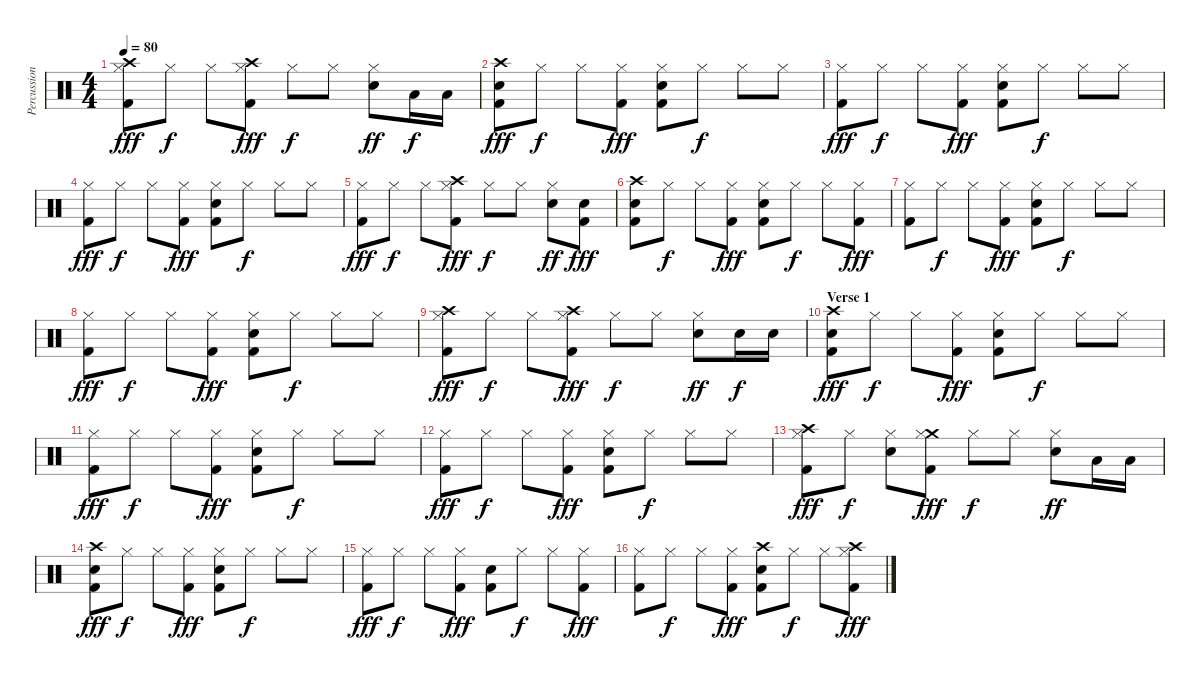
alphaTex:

\track ("Percussion" "Percussion") {instrument percussion}
\staff {score}
\articulation defaults
\ts (4 4)
\tempo 80
\clef neutral
\ks c
("Crash high (hit)" "Kick (hit) 2" "Hi-Hat (closed)").8{dy fff} "Hi-Hat (closed)".8{dy f} "Hi-Hat (closed)".8 ("Crash high (hit)" "Kick (hit) 2" "Hi-Hat (closed)").8{dy fff} "Hi-Hat (closed)".8{dy f} "Hi-Hat (closed)".8 ("Snare (hit) 2" "Hi-Hat (closed)").8{dy ff} "Low Tom (hit)".16{dy f} "Low Floor Tom (hit)".16 |
("Crash high (hit)" "Snare (hit) 2" "Kick (hit) 2").8{dy fff} "Hi-Hat (closed)".8{dy f} "Hi-Hat (closed)".8 ("Kick (hit) 2" "Hi-Hat (closed)").8{dy fff} ("Snare (hit) 2" "Kick (hit) 2" "Hi-Hat (closed)").8 "Hi-Hat (closed)".8{dy f} "Hi-Hat (closed)".8 "Hi-Hat (closed)".8 |
("Kick (hit) 2" "Hi-Hat (closed)").8{dy fff} "Hi-Hat (closed)".8{dy f} "Hi-Hat (closed)".8 ("Kick (hit) 2" "Hi-Hat (closed)").8{dy fff} ("Snare (hit) 2" "Kick (hit) 2" "Hi-Hat (closed)").8 "Hi-Hat (closed)".8{dy f} "Hi-Hat (closed)".8 "Hi-Hat (closed)".8 |
("Kick (hit) 2" "Hi-Hat (closed)").8{dy fff} "Hi-Hat (closed)".8{dy f} "Hi-Hat (closed)".8 ("Kick (hit) 2" "Hi-Hat (closed)").8{dy fff} ("Snare (hit) 2" "Kick (hit) 2" "Hi-Hat (closed)").8 "Hi-Hat (closed)".8{dy f} "Hi-Hat (closed)".8 "Hi-Hat (closed)".8 |
("Kick (hit) 2" "Hi-Hat (closed)").8{dy fff} "Hi-Hat (closed)".8{dy f} "Hi-Hat (closed)".8 ("Crash high (hit)" "Kick (hit) 2" "Hi-Hat (closed)").8{dy fff} "Hi-Hat (closed)".8{dy f} "Hi-Hat (closed)".8 ("Snare (hit) 2" "Hi-Hat (closed)").8{dy ff} ("Snare (hit) 2" "Kick (hit) 2").8{dy fff} |
("Crash high (hit)" "Snare (hit) 2" "Kick (hit) 2").8 "Hi-Hat (closed)".8{dy f} "Hi-Hat (closed)".8 ("Kick (hit) 2" "Hi-Hat (closed)").8{dy fff} ("Snare (hit) 2" "Kick (hit) 2" "Hi-Hat (closed)").8 "Hi-Hat (closed)".8{dy f} "Hi-Hat (closed)".8 ("Kick (hit) 2" "Hi-Hat (closed)").8{dy fff} |
("Kick (hit) 2" "Hi-Hat (closed)").8 "Hi-Hat (closed)".8{dy f} "Hi-Hat (closed)".8 ("Kick (hit) 2" "Hi-Hat (closed)").8{dy fff} ("Snare (hit) 2" "Kick (hit) 2" "Hi-Hat (closed)").8 "Hi-Hat (closed)".8{dy f} "Hi-Hat (closed)".8 "Hi-Hat (closed)".8 |
("Kick (hit) 2" "Hi-Hat (closed)").8{dy fff} "Hi-Hat (closed)".8{dy f} "Hi-Hat (closed)".8 ("Kick (hit) 2" "Hi-Hat (closed)").8{dy fff} ("Snare (hit) 2" "Kick (hit) 2" "Hi-Hat (closed)").8 "Hi-Hat (closed)".8{dy f} "Hi-Hat (closed)".8 "Hi-Hat (closed)".8 |
("Crash high (hit)" "Kick (hit) 2" "Hi-Hat (closed)").8{dy fff} "Hi-Hat (closed)".8{dy f} "Hi-Hat (closed)".8 ("Crash high (hit)" "Kick (hit) 2" "Hi-Hat (closed)").8{dy fff} "Hi-Hat (closed)".8{dy f} "Hi-Hat (closed)".8 ("Snare (hit) 2" "Hi-Hat (closed)").8{dy ff} "Snare (hit) 2".16{dy f} "Snare (hit) 2".16 |
\section ("" "Verse 1")
("Crash high (hit)" "Snare (hit) 2" "Kick (hit) 2").8{dy fff} "Hi-Hat (closed)".8{dy f} "Hi-Hat (closed)".8 ("Kick (hit) 2" "Hi-Hat (closed)").8{dy fff} ("Snare (hit) 2" "Kick (hit) 2" "Hi-Hat (closed)").8 "Hi-Hat (closed)".8{dy f} "Hi-Hat (closed)".8 "Hi-Hat (closed)".8 |
("Kick (hit) 2" "Hi-Hat (closed)").8{dy fff} "Hi-Hat (closed)".8{dy f} "Hi-Hat (closed)".8 ("Kick (hit) 2" "Hi-Hat (closed)").8{dy fff} ("Snare (hit) 2" "Kick (hit) 2" "Hi-Hat (closed)").8 "Hi-Hat (closed)".8{dy f} "Hi-Hat (closed)".8 "Hi-Hat (closed)".8 |
("Kick (hit) 2" "Hi-Hat (closed)").8{dy fff} "Hi-Hat (closed)".8{dy f} "Hi-Hat (closed)".8 ("Kick (hit) 2" "Hi-Hat (closed)").8{dy fff} ("Snare (hit) 2" "Kick (hit) 2" "Hi-Hat (closed)").8 "Hi-Hat (closed)".8{dy f} "Hi-Hat (closed)".8 "Hi-Hat (closed)".8 |
("Crash high (hit)" "Kick (hit) 2" "Hi-Hat (closed)").8{dy fff} "Hi-Hat (closed)".8{dy f} ("Snare (hit) 2" "Hi-Hat (closed)").8 ("Crash medium (hit)" "Kick (hit) 2" "Hi-Hat (closed)").8{dy fff} "Hi-Hat (closed)".8{dy f} "Hi-Hat (closed)".8 ("Snare (hit) 2" "Hi-Hat (closed)").8{dy ff} "Low Tom (hit)".16 "Low Floor Tom (hit)".16 |
("Crash high (hit)" "Snare (hit) 2" "Kick (hit) 2").8{dy fff} "Hi-Hat (closed)".8{dy f} "Hi-Hat (closed)".8 ("Kick (hit) 2" "Hi-Hat (closed)").8{dy fff} ("Snare (hit) 2" "Kick (hit) 2" "Hi-Hat (closed)").8 "Hi-Hat (closed)".8{dy f} "Hi-Hat (closed)".8 "Hi-Hat (closed)".8 |
("Kick (hit) 2" "Hi-Hat (closed)").8{dy fff} "Hi-Hat (closed)".8{dy f} "Hi-Hat (closed)".8 ("Kick (hit) 2" "Hi-Hat (closed)").8{dy fff} ("Snare (hit) 2" "Kick (hit) 2").8 "Hi-Hat (closed)".8{dy f} "Hi-Hat (closed)".8 ("Kick (hit) 2" "Hi-Hat (closed)").8{dy fff} |
("Kick (hit) 2" "Hi-Hat (closed)").8 "Hi-Hat (closed)".8{dy f} "Hi-Hat (closed)".8 ("Kick (hit) 2" "Hi-Hat (closed)").8{dy fff} ("Crash high (hit)" "Snare (hit) 2" "Kick (hit) 2").8 "Hi-Hat (closed)".8{dy f} "Hi-Hat (closed)".8 ("Crash high (hit)" "Kick (hit) 2" "Hi-Hat (closed)").8{dy fff}
